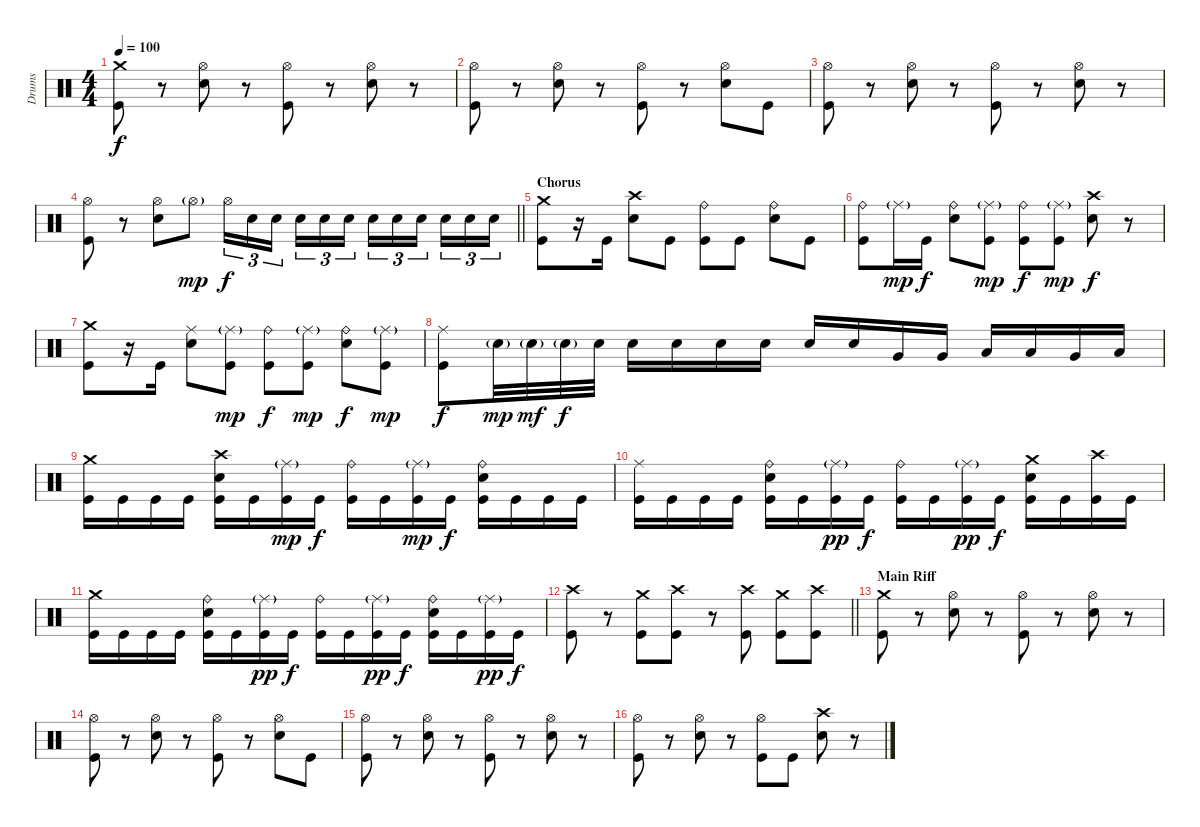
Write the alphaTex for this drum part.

\track ("Drums" "Drums") {instrument percussion}
\staff {score}
\articulation defaults
\ts (4 4)
\tempo 100
\clef neutral
\ks c
("Crash medium (hit)" "Kick (hit)").8{dy f} r.8 ("Hi-Hat (open)" "Electric Snare (hit)").8 r.8 ("Hi-Hat (open)" "Kick (hit)").8 r.8 ("Hi-Hat (open)" "Electric Snare (hit)").8 r.8 |
("Hi-Hat (open)" "Kick (hit)").8 r.8 ("Hi-Hat (open)" "Electric Snare (hit)").8 r.8 ("Hi-Hat (open)" "Kick (hit)").8 r.8 ("Hi-Hat (open)" "Electric Snare (hit)").8 "Kick (hit)".8 |
("Hi-Hat (open)" "Kick (hit)").8 r.8 ("Hi-Hat (open)" "Electric Snare (hit)").8 r.8 ("Hi-Hat (open)" "Kick (hit)").8 r.8 ("Hi-Hat (open)" "Electric Snare (hit)").8 r.8 |
\barLineRight lightlight
("Hi-Hat (open)" "Kick (hit)").8 r.8 ("Hi-Hat (open)" "Electric Snare (hit)").8 "Hi-Hat (open)"{g}.8{dy mp} "Hi-Hat (open)".16{tu (3 2) dy f} "Electric Snare (hit)".16{tu (3 2)} "Electric Snare (hit)".16{tu (3 2) beam splitsecondary} "Electric Snare (hit)".16{tu (3 2)} "Electric Snare (hit)".16{tu (3 2)} "Electric Snare (hit)".16{tu (3 2)} "Electric Snare (hit)".16{tu (3 2)} "Electric Snare (hit)".16{tu (3 2)} "Electric Snare (hit)".16{tu (3 2) beam splitsecondary} "Electric Snare (hit)".16{tu (3 2)} "Electric Snare (hit)".16{tu (3 2)} "Electric Snare (hit)".16{tu (3 2)} |
\section ("" "Chorus")
("Crash medium (hit)" "Kick (hit)").8 r.16 "Kick (hit)".16 ("Crash high (hit)" "Electric Snare (hit)").8 "Kick (hit)".8 ("Ride (bell)" "Kick (hit)").8 "Kick (hit)".8 ("Ride (bell)" "Electric Snare (hit)").8 "Kick (hit)".8 |
("Ride (bell)" "Kick (hit)").8 "Ride (middle)"{g}.16{dy mp} "Kick (hit)".16{dy f} ("Ride (bell)" "Electric Snare (hit)").8 ("Ride (middle)"{g} "Kick (hit)").8{dy mp} ("Ride (bell)" "Kick (hit)").8{dy f} ("Ride (middle)"{g} "Kick (hit)").8{dy mp} ("Crash high (hit)" "Electric Snare (hit)").8{dy f} r.8 |
("Crash medium (hit)" "Kick (hit)").8 r.16 "Kick (hit)".16 ("Ride (middle)" "Electric Snare (hit)").8 ("Ride (middle)"{g} "Kick (hit)").8{dy mp} ("Ride (bell)" "Kick (hit)").8{dy f} ("Ride (middle)"{g} "Kick (hit)").8{dy mp} ("Ride (bell)" "Electric Snare (hit)").8{dy f} ("Ride (middle)"{g} "Kick (hit)").8{dy mp} |
("Ride (middle)" "Kick (hit)").8{dy f} "Electric Snare (hit)"{g}.32{dy mp} "Electric Snare (hit)"{g}.32{dy mf} "Electric Snare (hit)"{g}.32{dy f} "Electric Snare (hit)".32 "Electric Snare (hit)".16 "Electric Snare (hit)".16 "Electric Snare (hit)".16 "Electric Snare (hit)".16 "Electric Snare (hit)".16 "Electric Snare (hit)".16 "Very Low Tom (hit)".16 "Very Low Tom (hit)".16 "Low Tom (hit)".16 "Low Tom (hit)".16 "Very Low Tom (hit)".16 "Low Floor Tom (hit)".16 |
("Crash medium (hit)" "Kick (hit)").16 "Kick (hit)".16 "Kick (hit)".16 "Kick (hit)".16 ("Crash high (hit)" "Electric Snare (hit)" "Kick (hit)").16 "Kick (hit)".16 ("Ride (middle)"{g} "Kick (hit)").16{dy mp} "Kick (hit)".16{dy f} ("Ride (bell)" "Kick (hit)").16 "Kick (hit)".16 ("Ride (middle)"{g} "Kick (hit)").16{dy mp} "Kick (hit)".16{dy f} ("Ride (bell)" "Electric Snare (hit)" "Kick (hit)").16 "Kick (hit)".16 "Kick (hit)".16 "Kick (hit)".16 |
("Ride (middle)" "Kick (hit)").16 "Kick (hit)".16 "Kick (hit)".16 "Kick (hit)".16 ("Ride (bell)" "Electric Snare (hit)" "Kick (hit)").16 "Kick (hit)".16 ("Ride (middle)"{g} "Kick (hit)").16{dy pp} "Kick (hit)".16{dy f} ("Ride (bell)" "Kick (hit)").16 "Kick (hit)".16 ("Ride (middle)"{g} "Kick (hit)").16{dy pp} "Kick (hit)".16{dy f} ("Crash medium (hit)" "Electric Snare (hit)" "Kick (hit)").16 "Kick (hit)".16 ("Crash high (hit)" "Kick (hit)").16 "Kick (hit)".16 |
("Crash medium (hit)" "Kick (hit)").16 "Kick (hit)".16 "Kick (hit)".16 "Kick (hit)".16 ("Ride (bell)" "Electric Snare (hit)" "Kick (hit)").16 "Kick (hit)".16 ("Ride (middle)"{g} "Kick (hit)").16{dy pp} "Kick (hit)".16{dy f} ("Ride (bell)" "Kick (hit)").16 "Kick (hit)".16 ("Ride (middle)"{g} "Kick (hit)").16{dy pp} "Kick (hit)".16{dy f} ("Ride (bell)" "Electric Snare (hit)" "Kick (hit)").16 "Kick (hit)".16 ("Ride (middle)"{g} "Kick (hit)").16{dy pp} "Kick (hit)".16{dy f} |
\barLineRight lightlight
("Crash high (hit)" "Kick (hit)").8 r.8 ("Crash medium (hit)" "Kick (hit)").8 ("Crash high (hit)" "Kick (hit)").8 r.8 ("Crash high (hit)" "Kick (hit)").8 ("Crash medium (hit)" "Kick (hit)").8 ("Crash high (hit)" "Kick (hit)").8 |
\section ("" "Main Riff")
("Crash medium (hit)" "Kick (hit)").8 r.8 ("Hi-Hat (open)" "Electric Snare (hit)").8 r.8 ("Hi-Hat (open)" "Kick (hit)").8 r.8 ("Hi-Hat (open)" "Electric Snare (hit)").8 r.8 |
("Hi-Hat (open)" "Kick (hit)").8 r.8 ("Hi-Hat (open)" "Electric Snare (hit)").8 r.8 ("Hi-Hat (open)" "Kick (hit)").8 r.8 ("Hi-Hat (open)" "Electric Snare (hit)").8 "Kick (hit)".8 |
("Hi-Hat (open)" "Kick (hit)").8 r.8 ("Hi-Hat (open)" "Electric Snare (hit)").8 r.8 ("Hi-Hat (open)" "Kick (hit)").8 r.8 ("Hi-Hat (open)" "Electric Snare (hit)").8 r.8 |
("Hi-Hat (open)" "Kick (hit)").8 r.8 ("Hi-Hat (open)" "Electric Snare (hit)").8 r.8 ("Hi-Hat (open)" "Kick (hit)").8 "Kick (hit)".8 ("Crash high (hit)" "Electric Snare (hit)").8 r.8
